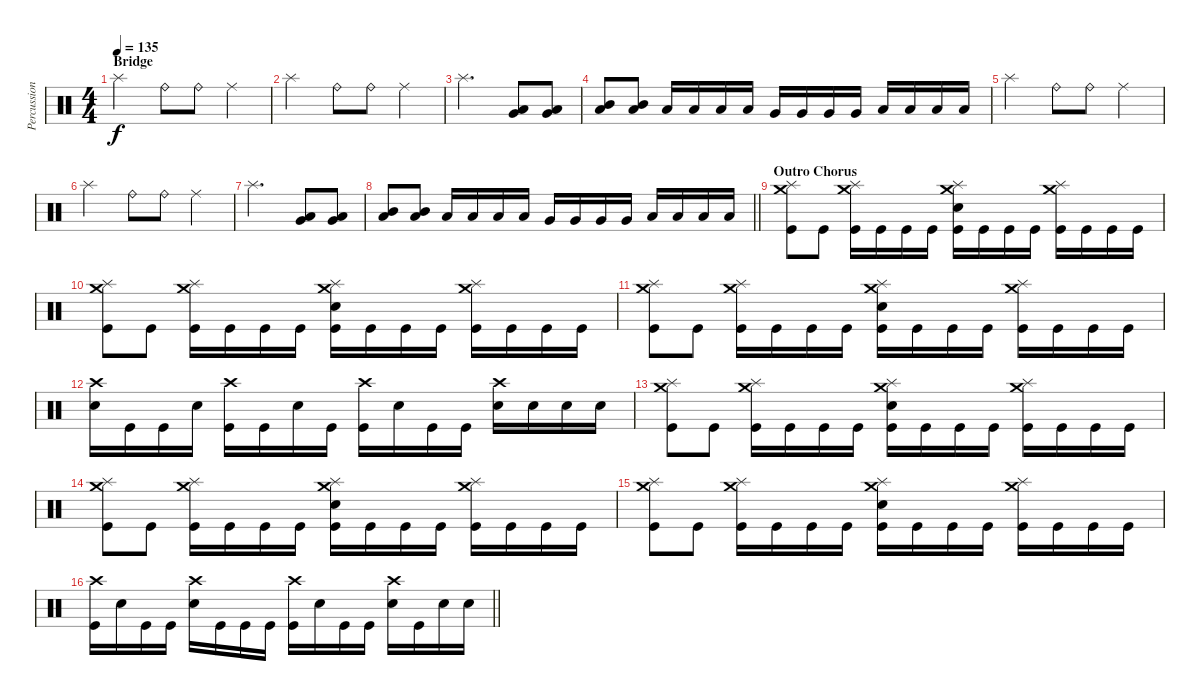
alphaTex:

\track ("Percussion (Approx.)" "Percussion") {instrument percussion}
\staff {score}
\articulation defaults
\ts (4 4)
\section ("" "Bridge")
\tempo 135
\clef neutral
\ks c "Splash (hit)".2{dy f} "Ride (bell)".8 "Ride (bell)".8 "Ride (middle)".4
|
"Splash (hit)".2 "Ride (bell)".8 "Ride (bell)".8 "Ride (middle)".4 |
"Splash (hit)".2{d} ("Low Tom (hit)" "Very Low Tom (hit)").8 ("Low Tom (hit)" "Very Low Tom (hit)").8 |
("Low Tom (hit)" "Mid Tom (hit)").8 ("Low Tom (hit)" "Mid Tom (hit)").8 "Low Tom (hit)".16 "Low Tom (hit)".16 "Low Tom (hit)".16 "Low Tom (hit)".16 "Very Low Tom (hit)".16 "Very Low Tom (hit)".16 "Very Low Tom (hit)".16 "Very Low Tom (hit)".16 "Low Floor Tom (hit)".16 "Low Floor Tom (hit)".16 "Low Floor Tom (hit)".16 "Low Floor Tom (hit)".16 |
"Splash (hit)".2 "Ride (bell)".8 "Ride (bell)".8 "Ride (middle)".4 |
"Splash (hit)".2 "Ride (bell)".8 "Ride (bell)".8 "Ride (middle)".4 |
"Splash (hit)".2{d} ("Low Tom (hit)" "Very Low Tom (hit)").8 ("Low Tom (hit)" "Very Low Tom (hit)").8 |
\barLineRight lightlight
("Low Tom (hit)" "Mid Tom (hit)").8 ("Low Tom (hit)" "Mid Tom (hit)").8 "Low Tom (hit)".16 "Low Tom (hit)".16 "Low Tom (hit)".16 "Low Tom (hit)".16 "Very Low Tom (hit)".16 "Very Low Tom (hit)".16 "Very Low Tom (hit)".16 "Very Low Tom (hit)".16 "Low Floor Tom (hit)".16 "Low Floor Tom (hit)".16 "Low Floor Tom (hit)".16 "Low Floor Tom (hit)".16 |
\section ("" "Outro Chorus")
("Crash medium (hit)" "Splash (hit)" "Kick (hit)").8 "Kick (hit)".8 ("Crash medium (hit)" "Splash (hit)" "Kick (hit)").16 "Kick (hit)".16 "Kick (hit)".16 "Kick (hit)".16 ("Crash medium (hit)" "Splash (hit)" "Electric Snare (hit)" "Kick (hit)").16 "Kick (hit)".16 "Kick (hit)".16 "Kick (hit)".16 ("Crash medium (hit)" "Splash (hit)" "Kick (hit)").16 "Kick (hit)".16 "Kick (hit)".16 "Kick (hit)".16 |
("Crash medium (hit)" "Splash (hit)" "Kick (hit)").8 "Kick (hit)".8 ("Crash medium (hit)" "Splash (hit)" "Kick (hit)").16 "Kick (hit)".16 "Kick (hit)".16 "Kick (hit)".16 ("Crash medium (hit)" "Splash (hit)" "Electric Snare (hit)" "Kick (hit)").16 "Kick (hit)".16 "Kick (hit)".16 "Kick (hit)".16 ("Crash medium (hit)" "Splash (hit)" "Kick (hit)").16 "Kick (hit)".16 "Kick (hit)".16 "Kick (hit)".16 |
("Crash medium (hit)" "Splash (hit)" "Kick (hit)").8 "Kick (hit)".8 ("Crash medium (hit)" "Splash (hit)" "Kick (hit)").16 "Kick (hit)".16 "Kick (hit)".16 "Kick (hit)".16 ("Crash medium (hit)" "Splash (hit)" "Electric Snare (hit)" "Kick (hit)").16 "Kick (hit)".16 "Kick (hit)".16 "Kick (hit)".16 ("Crash medium (hit)" "Splash (hit)" "Kick (hit)").16 "Kick (hit)".16 "Kick (hit)".16 "Kick (hit)".16 |
("Crash high (hit)" "Electric Snare (hit)").16 "Kick (hit)".16 "Kick (hit)".16 "Electric Snare (hit)".16 ("Crash high (hit)" "Kick (hit)").16 "Kick (hit)".16 "Electric Snare (hit)".16 "Kick (hit)".16 ("Crash high (hit)" "Kick (hit)").16 "Electric Snare (hit)".16 "Kick (hit)".16 "Kick (hit)".16 ("Crash high (hit)" "Electric Snare (hit)").16 "Electric Snare (hit)".16 "Electric Snare (hit)".16 "Electric Snare (hit)".16 |
("Crash medium (hit)" "Splash (hit)" "Kick (hit)").8 "Kick (hit)".8 ("Crash medium (hit)" "Splash (hit)" "Kick (hit)").16 "Kick (hit)".16 "Kick (hit)".16 "Kick (hit)".16 ("Crash medium (hit)" "Splash (hit)" "Electric Snare (hit)" "Kick (hit)").16 "Kick (hit)".16 "Kick (hit)".16 "Kick (hit)".16 ("Crash medium (hit)" "Splash (hit)" "Kick (hit)").16 "Kick (hit)".16 "Kick (hit)".16 "Kick (hit)".16 |
("Crash medium (hit)" "Splash (hit)" "Kick (hit)").8 "Kick (hit)".8 ("Crash medium (hit)" "Splash (hit)" "Kick (hit)").16 "Kick (hit)".16 "Kick (hit)".16 "Kick (hit)".16 ("Crash medium (hit)" "Splash (hit)" "Electric Snare (hit)" "Kick (hit)").16 "Kick (hit)".16 "Kick (hit)".16 "Kick (hit)".16 ("Crash medium (hit)" "Splash (hit)" "Kick (hit)").16 "Kick (hit)".16 "Kick (hit)".16 "Kick (hit)".16 |
("Crash medium (hit)" "Splash (hit)" "Kick (hit)").8 "Kick (hit)".8 ("Crash medium (hit)" "Splash (hit)" "Kick (hit)").16 "Kick (hit)".16 "Kick (hit)".16 "Kick (hit)".16 ("Crash medium (hit)" "Splash (hit)" "Electric Snare (hit)" "Kick (hit)").16 "Kick (hit)".16 "Kick (hit)".16 "Kick (hit)".16 ("Crash medium (hit)" "Splash (hit)" "Kick (hit)").16 "Kick (hit)".16 "Kick (hit)".16 "Kick (hit)".16 |
\barLineRight lightlight
("Crash high (hit)" "Kick (hit)").16 "Electric Snare (hit)".16 "Kick (hit)".16 "Kick (hit)".16 ("Crash high (hit)" "Electric Snare (hit)").16 "Kick (hit)".16 "Kick (hit)".16 "Kick (hit)".16 ("Crash high (hit)" "Kick (hit)").16 "Electric Snare (hit)".16 "Kick (hit)".16 "Kick (hit)".16 ("Crash high (hit)" "Electric Snare (hit)").16 "Kick (hit)".16 "Electric Snare (hit)".16 "Electric Snare (hit)".16
